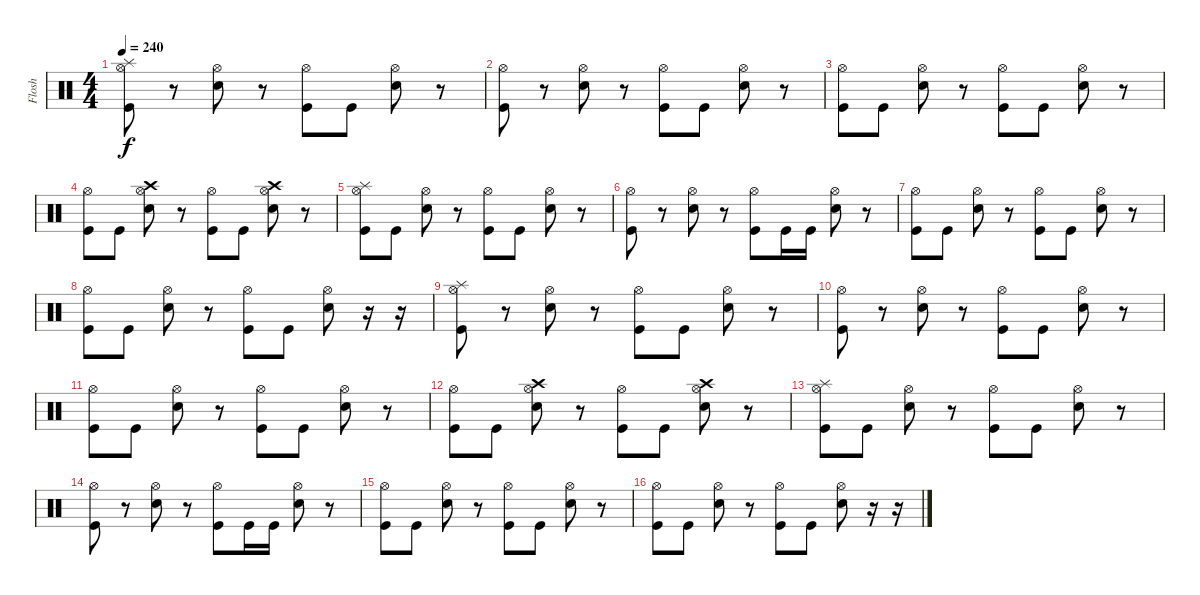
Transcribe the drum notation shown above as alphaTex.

\track ("Flosh" "Flosh") {instrument percussion}
\staff {score}
\articulation defaults
\ts (4 4)
\tempo 240
\clef neutral
\ks c
("Splash (hit)" "Hi-Hat (open)" "Kick (hit)").8{dy f} r.8 ("Hi-Hat (open)" "Snare (hit) 2").8 r.8 ("Hi-Hat (open)" "Kick (hit)").8 "Kick (hit)".8 ("Hi-Hat (open)" "Snare (hit) 2").8 r.8 |
("Hi-Hat (open)" "Kick (hit)").8 r.8 ("Hi-Hat (open)" "Snare (hit) 2").8 r.8 ("Hi-Hat (open)" "Kick (hit)").8 "Kick (hit)".8 ("Hi-Hat (open)" "Snare (hit) 2").8 r.8 |
("Hi-Hat (open)" "Kick (hit)").8 "Kick (hit)".8 ("Hi-Hat (open)" "Snare (hit) 2").8 r.8 ("Hi-Hat (open)" "Kick (hit)").8 "Kick (hit)".8 ("Hi-Hat (open)" "Snare (hit) 2").8 r.8 |
("Hi-Hat (open)" "Kick (hit)").8 "Kick (hit)".8 ("Crash high (hit)" "Hi-Hat (open)" "Snare (hit) 2").8 r.8 ("Hi-Hat (open)" "Kick (hit)").8 "Kick (hit)".8 ("Crash high (hit)" "Hi-Hat (open)" "Snare (hit) 2").8 r.8 |
("Splash (hit)" "Hi-Hat (open)" "Kick (hit)").8 "Kick (hit)".8 ("Hi-Hat (open)" "Snare (hit) 2").8 r.8 ("Hi-Hat (open)" "Kick (hit)").8 "Kick (hit)".8 ("Hi-Hat (open)" "Snare (hit) 2").8 r.8 |
("Hi-Hat (open)" "Kick (hit)").8 r.8 ("Hi-Hat (open)" "Snare (hit) 2").8 r.8 ("Hi-Hat (open)" "Kick (hit)").8 "Kick (hit)".16 "Kick (hit)".16 ("Hi-Hat (open)" "Snare (hit) 2").8 r.8 |
("Hi-Hat (open)" "Kick (hit)").8 "Kick (hit)".8 ("Hi-Hat (open)" "Snare (hit) 2").8 r.8 ("Hi-Hat (open)" "Kick (hit)").8 "Kick (hit)".8 ("Hi-Hat (open)" "Snare (hit) 2").8 r.8 |
("Hi-Hat (open)" "Kick (hit)").8 "Kick (hit)".8 ("Hi-Hat (open)" "Snare (hit) 2").8 r.8 ("Hi-Hat (open)" "Kick (hit)").8 "Kick (hit)".8 ("Hi-Hat (open)" "Snare (hit) 2").8 r.16 r.16 |
("Splash (hit)" "Hi-Hat (open)" "Kick (hit)").8 r.8 ("Hi-Hat (open)" "Snare (hit) 2").8 r.8 ("Hi-Hat (open)" "Kick (hit)").8 "Kick (hit)".8 ("Hi-Hat (open)" "Snare (hit) 2").8 r.8 |
("Hi-Hat (open)" "Kick (hit)").8 r.8 ("Hi-Hat (open)" "Snare (hit) 2").8 r.8 ("Hi-Hat (open)" "Kick (hit)").8 "Kick (hit)".8 ("Hi-Hat (open)" "Snare (hit) 2").8 r.8 |
("Hi-Hat (open)" "Kick (hit)").8 "Kick (hit)".8 ("Hi-Hat (open)" "Snare (hit) 2").8 r.8 ("Hi-Hat (open)" "Kick (hit)").8 "Kick (hit)".8 ("Hi-Hat (open)" "Snare (hit) 2").8 r.8 |
("Hi-Hat (open)" "Kick (hit)").8 "Kick (hit)".8 ("Crash high (hit)" "Hi-Hat (open)" "Snare (hit) 2").8 r.8 ("Hi-Hat (open)" "Kick (hit)").8 "Kick (hit)".8 ("Crash high (hit)" "Hi-Hat (open)" "Snare (hit) 2").8 r.8 |
("Splash (hit)" "Hi-Hat (open)" "Kick (hit)").8 "Kick (hit)".8 ("Hi-Hat (open)" "Snare (hit) 2").8 r.8 ("Hi-Hat (open)" "Kick (hit)").8 "Kick (hit)".8 ("Hi-Hat (open)" "Snare (hit) 2").8 r.8 |
("Hi-Hat (open)" "Kick (hit)").8 r.8 ("Hi-Hat (open)" "Snare (hit) 2").8 r.8 ("Hi-Hat (open)" "Kick (hit)").8 "Kick (hit)".16 "Kick (hit)".16 ("Hi-Hat (open)" "Snare (hit) 2").8 r.8 |
("Hi-Hat (open)" "Kick (hit)").8 "Kick (hit)".8 ("Hi-Hat (open)" "Snare (hit) 2").8 r.8 ("Hi-Hat (open)" "Kick (hit)").8 "Kick (hit)".8 ("Hi-Hat (open)" "Snare (hit) 2").8 r.8 |
("Hi-Hat (open)" "Kick (hit)").8 "Kick (hit)".8 ("Hi-Hat (open)" "Snare (hit) 2").8 r.8 ("Hi-Hat (open)" "Kick (hit)").8 "Kick (hit)".8 ("Hi-Hat (open)" "Snare (hit) 2").8 r.16 r.16
